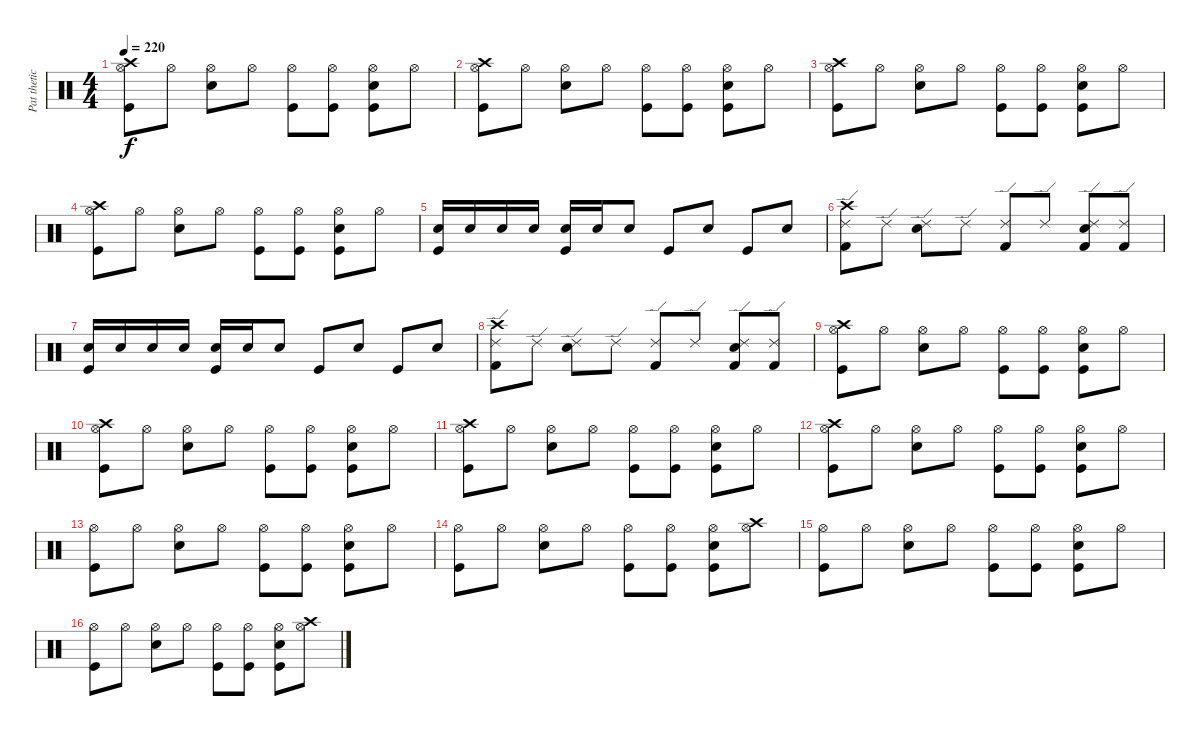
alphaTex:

\track ("Pat thetic " "Pat thetic") {instrument percussion}
\staff {score}
\articulation defaults
\ts (4 4)
\tempo 220
\clef neutral
\ks c
("Kick (hit)" "Crash high (hit)" "Hi-Hat (open)").8{dy f} "Hi-Hat (open)".8 ("Electric Snare (hit)" "Hi-Hat (open)").8 "Hi-Hat (open)".8 ("Kick (hit)" "Hi-Hat (open)").8 ("Kick (hit)" "Hi-Hat (open)").8 ("Kick (hit)" "Electric Snare (hit)" "Hi-Hat (open)").8 "Hi-Hat (open)".8 |
("Kick (hit)" "Crash high (hit)" "Hi-Hat (open)").8 "Hi-Hat (open)".8 ("Electric Snare (hit)" "Hi-Hat (open)").8 "Hi-Hat (open)".8 ("Kick (hit)" "Hi-Hat (open)").8 ("Kick (hit)" "Hi-Hat (open)").8 ("Kick (hit)" "Electric Snare (hit)" "Hi-Hat (open)").8 "Hi-Hat (open)".8 |
("Kick (hit)" "Crash high (hit)" "Hi-Hat (open)").8 "Hi-Hat (open)".8 ("Electric Snare (hit)" "Hi-Hat (open)").8 "Hi-Hat (open)".8 ("Kick (hit)" "Hi-Hat (open)").8 ("Kick (hit)" "Hi-Hat (open)").8 ("Kick (hit)" "Electric Snare (hit)" "Hi-Hat (open)").8 "Hi-Hat (open)".8 |
("Kick (hit)" "Crash high (hit)" "Hi-Hat (open)").8 "Hi-Hat (open)".8 ("Electric Snare (hit)" "Hi-Hat (open)").8 "Hi-Hat (open)".8 ("Kick (hit)" "Hi-Hat (open)").8 ("Kick (hit)" "Hi-Hat (open)").8 ("Kick (hit)" "Electric Snare (hit)" "Hi-Hat (open)").8 "Hi-Hat (open)".8 |
("Kick (hit)" "Electric Snare (hit)").16 "Electric Snare (hit)".16 "Electric Snare (hit)".16 "Electric Snare (hit)".16 ("Kick (hit)" "Electric Snare (hit)").16 "Electric Snare (hit)".16 "Electric Snare (hit)".8 "Kick (hit)".8 "Electric Snare (hit)".8 "Kick (hit)".8 "Electric Snare (hit)".8 |
("Kick (hit) 2" "Crash high (hit)" "Ride (edge) 2").8 "Ride (edge) 2".8 ("Electric Snare (hit)" "Ride (edge) 2").8 "Ride (edge) 2".8 ("Kick (hit) 2" "Ride (edge) 2").8 "Ride (edge) 2".8 ("Kick (hit) 2" "Electric Snare (hit)" "Ride (edge) 2").8 ("Kick (hit) 2" "Ride (edge) 2").8 |
("Kick (hit)" "Electric Snare (hit)").16 "Electric Snare (hit)".16 "Electric Snare (hit)".16 "Electric Snare (hit)".16 ("Kick (hit)" "Electric Snare (hit)").16 "Electric Snare (hit)".16 "Electric Snare (hit)".8 "Kick (hit)".8 "Electric Snare (hit)".8 "Kick (hit)".8 "Electric Snare (hit)".8 |
("Kick (hit) 2" "Crash high (hit)" "Ride (edge) 2").8 "Ride (edge) 2".8 ("Electric Snare (hit)" "Ride (edge) 2").8 "Ride (edge) 2".8 ("Kick (hit) 2" "Ride (edge) 2").8 "Ride (edge) 2".8 ("Kick (hit) 2" "Electric Snare (hit)" "Ride (edge) 2").8 ("Kick (hit) 2" "Ride (edge) 2").8 |
("Kick (hit)" "Crash high (hit)" "Hi-Hat (open)").8 "Hi-Hat (open)".8 ("Electric Snare (hit)" "Hi-Hat (open)").8 "Hi-Hat (open)".8 ("Kick (hit)" "Hi-Hat (open)").8 ("Kick (hit)" "Hi-Hat (open)").8 ("Kick (hit)" "Electric Snare (hit)" "Hi-Hat (open)").8 "Hi-Hat (open)".8 |
("Kick (hit)" "Crash high (hit)" "Hi-Hat (open)").8 "Hi-Hat (open)".8 ("Electric Snare (hit)" "Hi-Hat (open)").8 "Hi-Hat (open)".8 ("Kick (hit)" "Hi-Hat (open)").8 ("Kick (hit)" "Hi-Hat (open)").8 ("Kick (hit)" "Electric Snare (hit)" "Hi-Hat (open)").8 "Hi-Hat (open)".8 |
("Kick (hit)" "Crash high (hit)" "Hi-Hat (open)").8 "Hi-Hat (open)".8 ("Electric Snare (hit)" "Hi-Hat (open)").8 "Hi-Hat (open)".8 ("Kick (hit)" "Hi-Hat (open)").8 ("Kick (hit)" "Hi-Hat (open)").8 ("Kick (hit)" "Electric Snare (hit)" "Hi-Hat (open)").8 "Hi-Hat (open)".8 |
("Kick (hit)" "Crash high (hit)" "Hi-Hat (open)").8 "Hi-Hat (open)".8 ("Electric Snare (hit)" "Hi-Hat (open)").8 "Hi-Hat (open)".8 ("Kick (hit)" "Hi-Hat (open)").8 ("Kick (hit)" "Hi-Hat (open)").8 ("Kick (hit)" "Electric Snare (hit)" "Hi-Hat (open)").8 "Hi-Hat (open)".8 |
("Kick (hit)" "Hi-Hat (open)").8 "Hi-Hat (open)".8 ("Electric Snare (hit)" "Hi-Hat (open)").8 "Hi-Hat (open)".8 ("Kick (hit)" "Hi-Hat (open)").8 ("Kick (hit)" "Hi-Hat (open)").8 ("Kick (hit)" "Electric Snare (hit)" "Hi-Hat (open)").8 "Hi-Hat (open)".8 |
("Kick (hit)" "Hi-Hat (open)").8 "Hi-Hat (open)".8 ("Electric Snare (hit)" "Hi-Hat (open)").8 "Hi-Hat (open)".8 ("Kick (hit)" "Hi-Hat (open)").8 ("Kick (hit)" "Hi-Hat (open)").8 ("Kick (hit)" "Electric Snare (hit)" "Hi-Hat (open)").8 ("Crash high (hit)" "Hi-Hat (open)").8 |
("Kick (hit)" "Hi-Hat (open)").8 "Hi-Hat (open)".8 ("Electric Snare (hit)" "Hi-Hat (open)").8 "Hi-Hat (open)".8 ("Kick (hit)" "Hi-Hat (open)").8 ("Kick (hit)" "Hi-Hat (open)").8 ("Kick (hit)" "Electric Snare (hit)" "Hi-Hat (open)").8 "Hi-Hat (open)".8 |
("Kick (hit)" "Hi-Hat (open)").8 "Hi-Hat (open)".8 ("Electric Snare (hit)" "Hi-Hat (open)").8 "Hi-Hat (open)".8 ("Kick (hit)" "Hi-Hat (open)").8 ("Kick (hit)" "Hi-Hat (open)").8 ("Kick (hit)" "Electric Snare (hit)" "Hi-Hat (open)").8 ("Crash high (hit)" "Hi-Hat (open)").8
